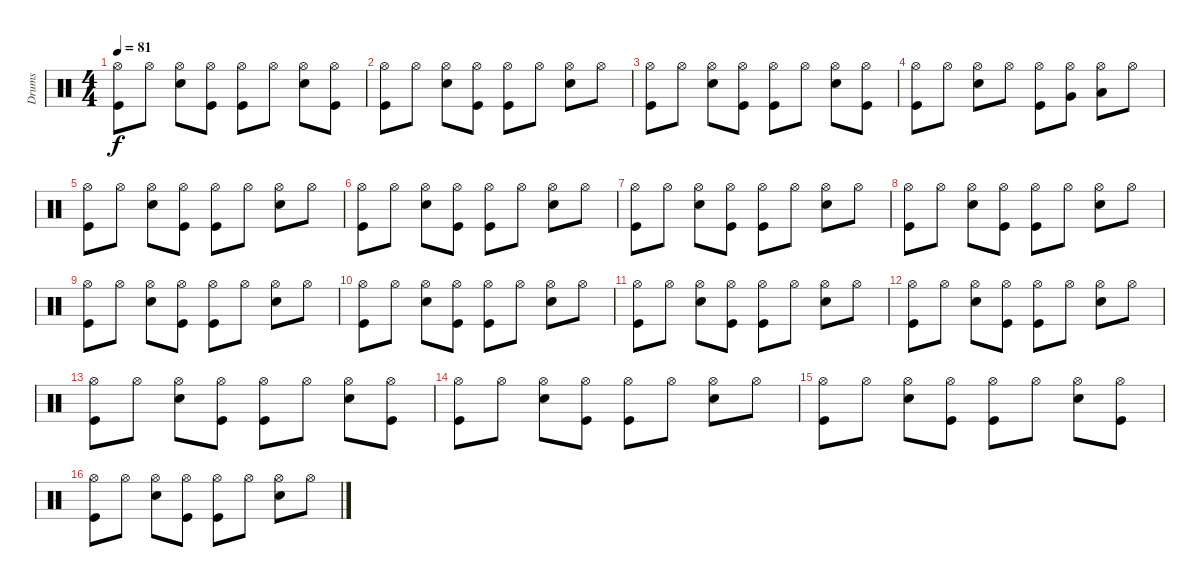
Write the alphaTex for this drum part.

\track ("Drums" "Drums") {instrument percussion}
\staff {score}
\articulation defaults
\ts (4 4)
\tempo 81
\clef neutral
\ks c
("Hi-Hat (open)" "Kick (hit)").8{dy f} "Hi-Hat (open)".8 ("Hi-Hat (open)" "Electric Snare (hit)").8 ("Hi-Hat (open)" "Kick (hit)").8 ("Hi-Hat (open)" "Kick (hit)").8 "Hi-Hat (open)".8 ("Hi-Hat (open)" "Electric Snare (hit)").8 ("Hi-Hat (open)" "Kick (hit)").8 |
("Hi-Hat (open)" "Kick (hit)").8 "Hi-Hat (open)".8 ("Hi-Hat (open)" "Electric Snare (hit)").8 ("Hi-Hat (open)" "Kick (hit)").8 ("Hi-Hat (open)" "Kick (hit)").8 "Hi-Hat (open)".8 ("Hi-Hat (open)" "Electric Snare (hit)").8 "Hi-Hat (open)".8 |
("Hi-Hat (open)" "Kick (hit)").8 "Hi-Hat (open)".8 ("Hi-Hat (open)" "Electric Snare (hit)").8 ("Hi-Hat (open)" "Kick (hit)").8 ("Hi-Hat (open)" "Kick (hit)").8 "Hi-Hat (open)".8 ("Hi-Hat (open)" "Electric Snare (hit)").8 ("Hi-Hat (open)" "Kick (hit)").8 |
("Hi-Hat (open)" "Kick (hit)").8 "Hi-Hat (open)".8 ("Hi-Hat (open)" "Electric Snare (hit)").8 "Hi-Hat (open)".8 ("Hi-Hat (open)" "Kick (hit)").8 ("Hi-Hat (open)" "Very Low Tom (hit)").8 ("Hi-Hat (open)" "Low Tom (hit)").8 "Hi-Hat (open)".8 |
("Hi-Hat (open)" "Kick (hit)").8 "Hi-Hat (open)".8 ("Hi-Hat (open)" "Electric Snare (hit)").8 ("Hi-Hat (open)" "Kick (hit)").8 ("Hi-Hat (open)" "Kick (hit)").8 "Hi-Hat (open)".8 ("Hi-Hat (open)" "Electric Snare (hit)").8 "Hi-Hat (open)".8 |
("Hi-Hat (open)" "Kick (hit)").8 "Hi-Hat (open)".8 ("Hi-Hat (open)" "Electric Snare (hit)").8 ("Hi-Hat (open)" "Kick (hit)").8 ("Hi-Hat (open)" "Kick (hit)").8 "Hi-Hat (open)".8 ("Hi-Hat (open)" "Electric Snare (hit)").8 "Hi-Hat (open)".8 |
("Hi-Hat (open)" "Kick (hit)").8 "Hi-Hat (open)".8 ("Hi-Hat (open)" "Electric Snare (hit)").8 ("Hi-Hat (open)" "Kick (hit)").8 ("Hi-Hat (open)" "Kick (hit)").8 "Hi-Hat (open)".8 ("Hi-Hat (open)" "Electric Snare (hit)").8 "Hi-Hat (open)".8 |
("Hi-Hat (open)" "Kick (hit)").8 "Hi-Hat (open)".8 ("Hi-Hat (open)" "Electric Snare (hit)").8 ("Hi-Hat (open)" "Kick (hit)").8 ("Hi-Hat (open)" "Kick (hit)").8 "Hi-Hat (open)".8 ("Hi-Hat (open)" "Electric Snare (hit)").8 "Hi-Hat (open)".8 |
("Hi-Hat (open)" "Kick (hit)").8 "Hi-Hat (open)".8 ("Hi-Hat (open)" "Electric Snare (hit)").8 ("Hi-Hat (open)" "Kick (hit)").8 ("Hi-Hat (open)" "Kick (hit)").8 "Hi-Hat (open)".8 ("Hi-Hat (open)" "Electric Snare (hit)").8 "Hi-Hat (open)".8 |
("Hi-Hat (open)" "Kick (hit)").8 "Hi-Hat (open)".8 ("Hi-Hat (open)" "Electric Snare (hit)").8 ("Hi-Hat (open)" "Kick (hit)").8 ("Hi-Hat (open)" "Kick (hit)").8 "Hi-Hat (open)".8 ("Hi-Hat (open)" "Electric Snare (hit)").8 "Hi-Hat (open)".8 |
("Hi-Hat (open)" "Kick (hit)").8 "Hi-Hat (open)".8 ("Hi-Hat (open)" "Electric Snare (hit)").8 ("Hi-Hat (open)" "Kick (hit)").8 ("Hi-Hat (open)" "Kick (hit)").8 "Hi-Hat (open)".8 ("Hi-Hat (open)" "Electric Snare (hit)").8 "Hi-Hat (open)".8 |
("Hi-Hat (open)" "Kick (hit)").8 "Hi-Hat (open)".8 ("Hi-Hat (open)" "Electric Snare (hit)").8 ("Hi-Hat (open)" "Kick (hit)").8 ("Hi-Hat (open)" "Kick (hit)").8 "Hi-Hat (open)".8 ("Hi-Hat (open)" "Electric Snare (hit)").8 "Hi-Hat (open)".8 |
("Hi-Hat (open)" "Kick (hit)").8 "Hi-Hat (open)".8 ("Hi-Hat (open)" "Electric Snare (hit)").8 ("Hi-Hat (open)" "Kick (hit)").8 ("Hi-Hat (open)" "Kick (hit)").8 "Hi-Hat (open)".8 ("Hi-Hat (open)" "Electric Snare (hit)").8 ("Hi-Hat (open)" "Kick (hit)").8 |
("Hi-Hat (open)" "Kick (hit)").8 "Hi-Hat (open)".8 ("Hi-Hat (open)" "Electric Snare (hit)").8 ("Hi-Hat (open)" "Kick (hit)").8 ("Hi-Hat (open)" "Kick (hit)").8 "Hi-Hat (open)".8 ("Hi-Hat (open)" "Electric Snare (hit)").8 "Hi-Hat (open)".8 |
("Hi-Hat (open)" "Kick (hit)").8 "Hi-Hat (open)".8 ("Hi-Hat (open)" "Electric Snare (hit)").8 ("Hi-Hat (open)" "Kick (hit)").8 ("Hi-Hat (open)" "Kick (hit)").8 "Hi-Hat (open)".8 ("Hi-Hat (open)" "Electric Snare (hit)").8 ("Hi-Hat (open)" "Kick (hit)").8 |
("Hi-Hat (open)" "Kick (hit)").8 "Hi-Hat (open)".8 ("Hi-Hat (open)" "Electric Snare (hit)").8 ("Hi-Hat (open)" "Kick (hit)").8 ("Hi-Hat (open)" "Kick (hit)").8 "Hi-Hat (open)".8 ("Hi-Hat (open)" "Electric Snare (hit)").8 "Hi-Hat (open)".8
